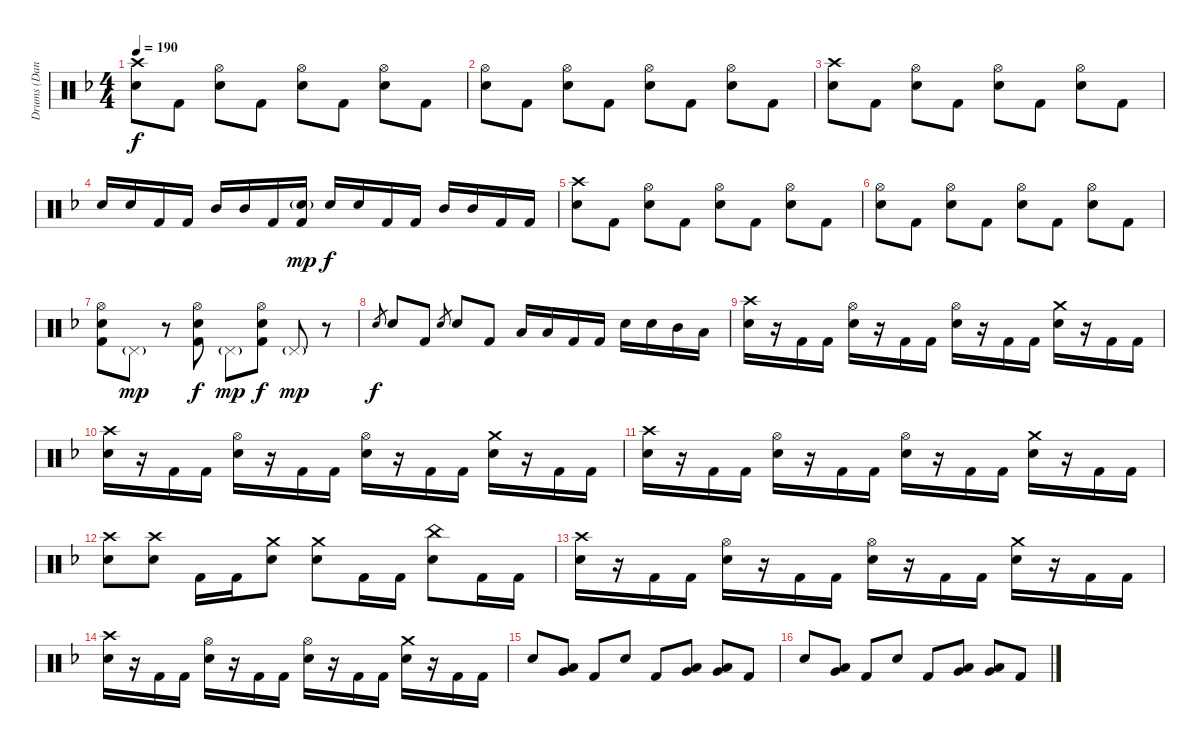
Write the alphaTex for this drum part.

\track ("Drums (Daniel)" "Drums (Dan") {instrument percussion}
\staff {score}
\articulation defaults
\ts (4 4)
\tempo 190
\clef neutral
\ks dminor
("Crash high (hit)" "Electric Snare (hit)").8{dy f} "Kick (hit) 2".8 ("Hi-Hat (open)" "Electric Snare (hit)").8 "Kick (hit) 2".8 ("Hi-Hat (open)" "Electric Snare (hit)").8 "Kick (hit) 2".8 ("Hi-Hat (open)" "Electric Snare (hit)").8 "Kick (hit) 2".8 |
("Hi-Hat (open)" "Electric Snare (hit)").8 "Kick (hit) 2".8 ("Hi-Hat (open)" "Electric Snare (hit)").8 "Kick (hit) 2".8 ("Hi-Hat (open)" "Electric Snare (hit)").8 "Kick (hit) 2".8 ("Hi-Hat (open)" "Electric Snare (hit)").8 "Kick (hit) 2".8 |
("Crash high (hit)" "Electric Snare (hit)").8 "Kick (hit) 2".8 ("Hi-Hat (open)" "Electric Snare (hit)").8 "Kick (hit) 2".8 ("Hi-Hat (open)" "Electric Snare (hit)").8 "Kick (hit) 2".8 ("Hi-Hat (open)" "Electric Snare (hit)").8 "Kick (hit) 2".8 |
"Electric Snare (hit)".16 "Electric Snare (hit)".16 "Kick (hit) 2".16 "Kick (hit) 2".16 "Mid Tom (hit)".16 "Mid Tom (hit)".16 "Kick (hit) 2".16 ("Electric Snare (hit)"{g} "Kick (hit) 2").16{dy mp} "Electric Snare (hit)".16{dy f} "Electric Snare (hit)".16 "Kick (hit) 2".16 "Kick (hit) 2".16 "Mid Tom (hit)".16 "Mid Tom (hit)".16 "Kick (hit) 2".16 "Kick (hit) 2".16 |
("Crash high (hit)" "Electric Snare (hit)").8 "Kick (hit) 2".8 ("Hi-Hat (open)" "Electric Snare (hit)").8 "Kick (hit) 2".8 ("Hi-Hat (open)" "Electric Snare (hit)").8 "Kick (hit) 2".8 ("Hi-Hat (open)" "Electric Snare (hit)").8 "Kick (hit) 2".8 |
("Hi-Hat (open)" "Electric Snare (hit)").8 "Kick (hit) 2".8 ("Hi-Hat (open)" "Electric Snare (hit)").8 "Kick (hit) 2".8 ("Hi-Hat (open)" "Electric Snare (hit)").8 "Kick (hit) 2".8 ("Hi-Hat (open)" "Electric Snare (hit)").8 "Kick (hit) 2".8 |
("Hi-Hat (open)" "Electric Snare (hit)" "Kick (hit) 2").8 "Pedal Hi-Hat (hit)"{g}.8{dy mp} r.8 ("Hi-Hat (open)" "Electric Snare (hit)" "Kick (hit) 2").8{dy f} "Pedal Hi-Hat (hit)"{g}.8{dy mp} ("Hi-Hat (open)" "Electric Snare (hit)" "Kick (hit) 2").8{dy f} "Pedal Hi-Hat (hit)"{g}.8{dy mp} r.8 |
"Electric Snare (hit)".8{gr dy f} "Electric Snare (hit)".8 "Kick (hit) 2".8 "Electric Snare (hit)".8{gr} "Electric Snare (hit)".8 "Kick (hit) 2".8 "Low Tom (hit)".16 "Low Tom (hit)".16 "Kick (hit) 2".16 "Kick (hit) 2".16 "Electric Snare (hit)".16 "Electric Snare (hit)".16 "Mid Tom (hit)".16 "Low Tom (hit)".16 |
("Crash high (hit)" "Electric Snare (hit)").16 r.16 "Kick (hit) 2".16 "Kick (hit) 2".16 ("Hi-Hat (open)" "Electric Snare (hit)").16 r.16 "Kick (hit) 2".16 "Kick (hit) 2".16 ("Hi-Hat (open)" "Electric Snare (hit)").16 r.16 "Kick (hit) 2".16 "Kick (hit) 2".16 ("Crash medium (hit)" "Electric Snare (hit)").16 r.16 "Kick (hit) 2".16 "Kick (hit) 2".16 |
("Crash high (hit)" "Electric Snare (hit)").16 r.16 "Kick (hit) 2".16 "Kick (hit) 2".16 ("Hi-Hat (open)" "Electric Snare (hit)").16 r.16 "Kick (hit) 2".16 "Kick (hit) 2".16 ("Hi-Hat (open)" "Electric Snare (hit)").16 r.16 "Kick (hit) 2".16 "Kick (hit) 2".16 ("Crash medium (hit)" "Electric Snare (hit)").16 r.16 "Kick (hit) 2".16 "Kick (hit) 2".16 |
("Crash high (hit)" "Electric Snare (hit)").16 r.16 "Kick (hit) 2".16 "Kick (hit) 2".16 ("Hi-Hat (open)" "Electric Snare (hit)").16 r.16 "Kick (hit) 2".16 "Kick (hit) 2".16 ("Hi-Hat (open)" "Electric Snare (hit)").16 r.16 "Kick (hit) 2".16 "Kick (hit) 2".16 ("Crash medium (hit)" "Electric Snare (hit)").16 r.16 "Kick (hit) 2".16 "Kick (hit) 2".16 |
("Crash high (hit)" "Electric Snare (hit)").8 ("Crash high (hit)" "Electric Snare (hit)").8 "Kick (hit) 2".16 "Kick (hit) 2".16 ("Crash medium (hit)" "Electric Snare (hit)").8 ("Crash medium (hit)" "Electric Snare (hit)").8 "Kick (hit) 2".16 "Kick (hit) 2".16 ("China (hit)" "Electric Snare (hit)").8 "Kick (hit) 2".16 "Kick (hit) 2".16 |
("Crash high (hit)" "Electric Snare (hit)").16 r.16 "Kick (hit) 2".16 "Kick (hit) 2".16 ("Hi-Hat (open)" "Electric Snare (hit)").16 r.16 "Kick (hit) 2".16 "Kick (hit) 2".16 ("Hi-Hat (open)" "Electric Snare (hit)").16 r.16 "Kick (hit) 2".16 "Kick (hit) 2".16 ("Crash medium (hit)" "Electric Snare (hit)").16 r.16 "Kick (hit) 2".16 "Kick (hit) 2".16 |
("Crash high (hit)" "Electric Snare (hit)").16 r.16 "Kick (hit) 2".16 "Kick (hit) 2".16 ("Hi-Hat (open)" "Electric Snare (hit)").16 r.16 "Kick (hit) 2".16 "Kick (hit) 2".16 ("Hi-Hat (open)" "Electric Snare (hit)").16 r.16 "Kick (hit) 2".16 "Kick (hit) 2".16 ("Crash medium (hit)" "Electric Snare (hit)").16 r.16 "Kick (hit) 2".16 "Kick (hit) 2".16 |
"Electric Snare (hit)".8 ("Low Tom (hit)" "Very Low Tom (hit)").8 "Kick (hit) 2".8 "Electric Snare (hit)".8 "Kick (hit) 2".8 ("Low Tom (hit)" "Very Low Tom (hit)").8 ("Low Tom (hit)" "Very Low Tom (hit)").8 "Kick (hit) 2".8 |
"Electric Snare (hit)".8 ("Low Tom (hit)" "Very Low Tom (hit)").8 "Kick (hit) 2".8 "Electric Snare (hit)".8 "Kick (hit) 2".8 ("Low Tom (hit)" "Very Low Tom (hit)").8 ("Low Tom (hit)" "Very Low Tom (hit)").8 "Kick (hit) 2".8
